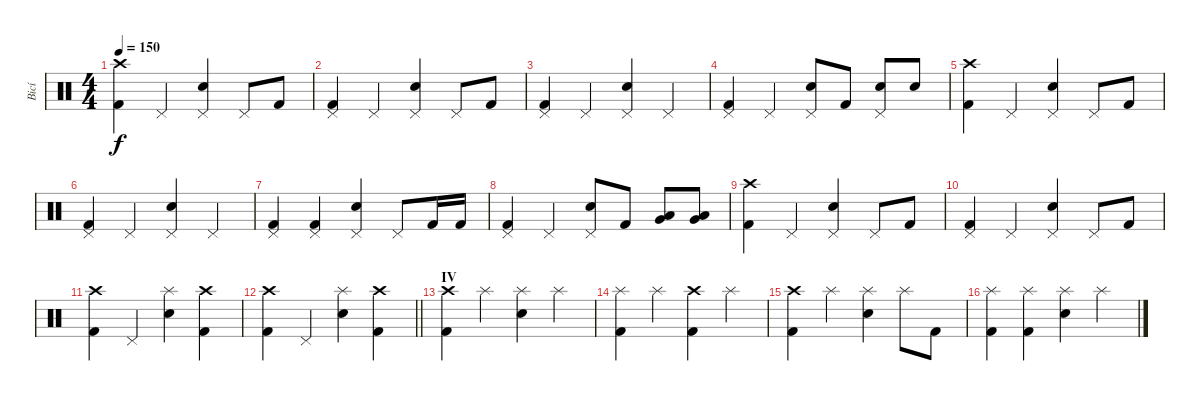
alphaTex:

\track ("Bicí" "Bicí") {instrument percussion}
\staff {score}
\articulation defaults
\ts (4 4)
\tempo 150
\clef neutral
\ks c
("Crash high (hit)" "Kick (hit) 2").4{dy f} "Pedal Hi-Hat (hit)".4 ("Pedal Hi-Hat (hit)" "Electric Snare (hit)").4 "Pedal Hi-Hat (hit)".8 "Kick (hit) 2".8 |
("Pedal Hi-Hat (hit)" "Kick (hit) 2").4 "Pedal Hi-Hat (hit)".4 ("Pedal Hi-Hat (hit)" "Electric Snare (hit)").4 "Pedal Hi-Hat (hit)".8 "Kick (hit) 2".8 |
("Pedal Hi-Hat (hit)" "Kick (hit) 2").4 "Pedal Hi-Hat (hit)".4 ("Pedal Hi-Hat (hit)" "Electric Snare (hit)").4 "Pedal Hi-Hat (hit)".4 |
("Pedal Hi-Hat (hit)" "Kick (hit) 2").4 "Pedal Hi-Hat (hit)".4 ("Pedal Hi-Hat (hit)" "Electric Snare (hit)").8 "Kick (hit) 2".8 ("Pedal Hi-Hat (hit)" "Electric Snare (hit)").8 "Electric Snare (hit)".8 |
("Crash high (hit)" "Kick (hit) 2").4 "Pedal Hi-Hat (hit)".4 ("Pedal Hi-Hat (hit)" "Electric Snare (hit)").4 "Pedal Hi-Hat (hit)".8 "Kick (hit) 2".8 |
("Pedal Hi-Hat (hit)" "Kick (hit) 2").4 "Pedal Hi-Hat (hit)".4 ("Pedal Hi-Hat (hit)" "Electric Snare (hit)").4 "Pedal Hi-Hat (hit)".4 |
("Pedal Hi-Hat (hit)" "Kick (hit) 2").4 ("Pedal Hi-Hat (hit)" "Kick (hit) 2").4 ("Pedal Hi-Hat (hit)" "Electric Snare (hit)").4 "Pedal Hi-Hat (hit)".8 "Kick (hit) 2".16 "Kick (hit) 2".16 |
("Pedal Hi-Hat (hit)" "Kick (hit) 2").4 "Pedal Hi-Hat (hit)".4 ("Pedal Hi-Hat (hit)" "Electric Snare (hit)").8 "Kick (hit) 2".8 ("Low Floor Tom (hit)" "Very Low Tom (hit)").8{bd 60} ("Low Floor Tom (hit)" "Very Low Tom (hit)").8{bd 60} |
("Crash high (hit)" "Kick (hit) 2").4 "Pedal Hi-Hat (hit)".4 ("Pedal Hi-Hat (hit)" "Electric Snare (hit)").4 "Pedal Hi-Hat (hit)".8 "Kick (hit) 2".8 |
("Pedal Hi-Hat (hit)" "Kick (hit) 2").4 "Pedal Hi-Hat (hit)".4 ("Pedal Hi-Hat (hit)" "Electric Snare (hit)").4 "Pedal Hi-Hat (hit)".8 "Kick (hit) 2".8 |
("Crash high (hit)" "Kick (hit) 2").4 "Pedal Hi-Hat (hit)".4 ("Splash (hit)" "Electric Snare (hit)").4 ("Crash high (hit)" "Kick (hit) 2").4 |
\barLineRight lightlight
("Crash high (hit)" "Kick (hit) 2").4 "Pedal Hi-Hat (hit)".4 ("Splash (hit)" "Electric Snare (hit)").4 ("Crash high (hit)" "Kick (hit) 2").4 |
\section ("" "IV")
("Crash high (hit)" "Kick (hit) 2").4 "Splash (hit)".4 ("Splash (hit)" "Electric Snare (hit)").4 "Splash (hit)".4 |
("Splash (hit)" "Kick (hit) 2").4 "Splash (hit)".4 ("Crash high (hit)" "Kick (hit) 2").4 "Splash (hit)".4 |
("Crash high (hit)" "Kick (hit) 2").4 "Splash (hit)".4 ("Splash (hit)" "Electric Snare (hit)").4 "Splash (hit)".8 "Kick (hit) 2".8 |
("Splash (hit)" "Kick (hit) 2").4 ("Splash (hit)" "Kick (hit) 2").4 ("Splash (hit)" "Electric Snare (hit)").4 "Splash (hit)".4
